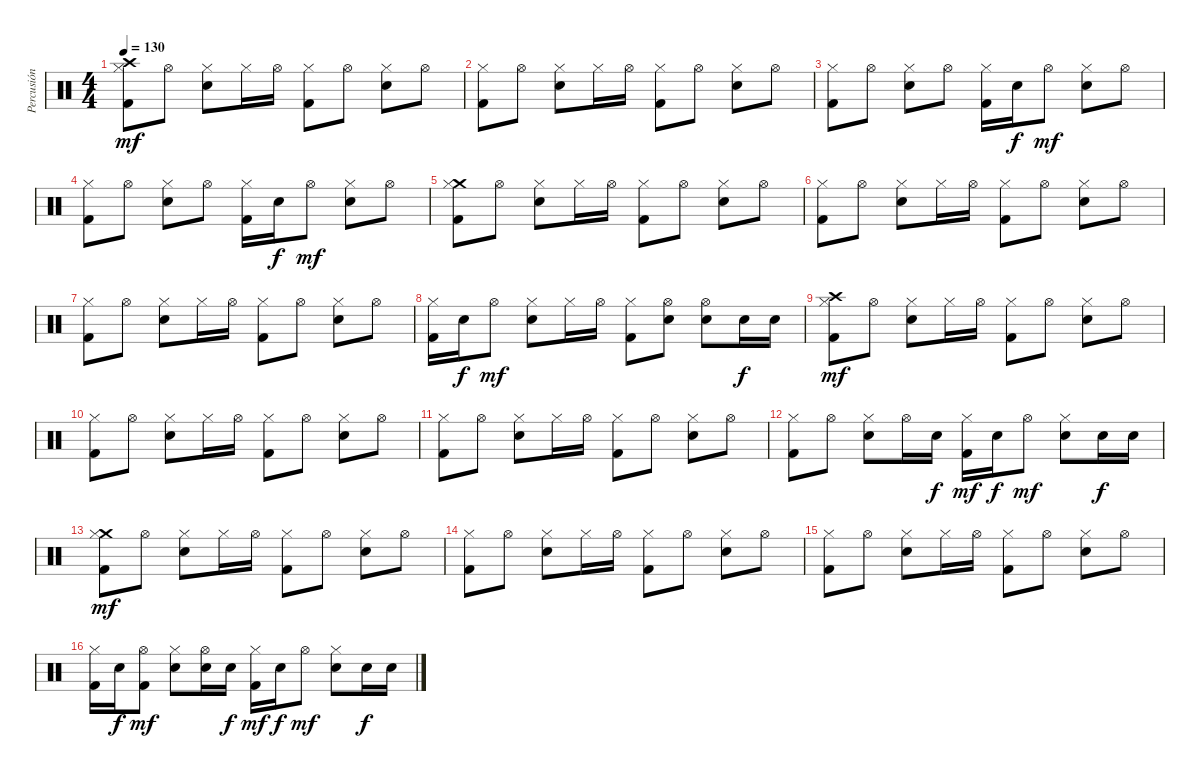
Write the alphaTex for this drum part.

\track ("Percusión" "Percusión") {instrument percussion}
\staff {score}
\articulation defaults
\ts (4 4)
\tempo 130
\clef neutral
\ks c
("Crash high (hit)" "Hi-Hat (closed)" "Kick (hit) 2").8{dy mf} "Hi-Hat (open)".8 ("Hi-Hat (closed)" "Snare (hit) 2").8 "Hi-Hat (closed)".16 "Hi-Hat (open)".16 ("Hi-Hat (closed)" "Kick (hit) 2").8 "Hi-Hat (open)".8 ("Hi-Hat (closed)" "Snare (hit) 2").8 "Hi-Hat (open)".8 |
("Hi-Hat (closed)" "Kick (hit) 2").8 "Hi-Hat (open)".8 ("Hi-Hat (closed)" "Snare (hit) 2").8 "Hi-Hat (closed)".16 "Hi-Hat (open)".16 ("Hi-Hat (closed)" "Kick (hit) 2").8 "Hi-Hat (open)".8 ("Hi-Hat (closed)" "Snare (hit) 2").8 "Hi-Hat (open)".8 |
("Hi-Hat (closed)" "Kick (hit) 2").8 "Hi-Hat (open)".8 ("Hi-Hat (closed)" "Snare (hit) 2").8 "Hi-Hat (open)".8 ("Hi-Hat (closed)" "Kick (hit) 2").16 "Snare (hit) 2".16{dy f} "Hi-Hat (open)".8{dy mf} ("Hi-Hat (closed)" "Snare (hit) 2").8 "Hi-Hat (open)".8 |
("Hi-Hat (closed)" "Kick (hit) 2").8 "Hi-Hat (open)".8 ("Hi-Hat (closed)" "Snare (hit) 2").8 "Hi-Hat (open)".8 ("Hi-Hat (closed)" "Kick (hit) 2").16 "Snare (hit) 2".16{dy f} "Hi-Hat (open)".8{dy mf} ("Hi-Hat (closed)" "Snare (hit) 2").8 "Hi-Hat (open)".8 |
("Crash medium (hit)" "Hi-Hat (closed)" "Kick (hit) 2").8 "Hi-Hat (open)".8 ("Hi-Hat (closed)" "Snare (hit) 2").8 "Hi-Hat (closed)".16 "Hi-Hat (open)".16 ("Hi-Hat (closed)" "Kick (hit) 2").8 "Hi-Hat (open)".8 ("Hi-Hat (closed)" "Snare (hit) 2").8 "Hi-Hat (open)".8 |
("Hi-Hat (closed)" "Kick (hit) 2").8 "Hi-Hat (open)".8 ("Hi-Hat (closed)" "Snare (hit) 2").8 "Hi-Hat (closed)".16 "Hi-Hat (open)".16 ("Hi-Hat (closed)" "Kick (hit) 2").8 "Hi-Hat (open)".8 ("Hi-Hat (closed)" "Snare (hit) 2").8 "Hi-Hat (open)".8 |
("Hi-Hat (closed)" "Kick (hit) 2").8 "Hi-Hat (open)".8 ("Hi-Hat (closed)" "Snare (hit) 2").8 "Hi-Hat (closed)".16 "Hi-Hat (open)".16 ("Hi-Hat (closed)" "Kick (hit) 2").8 "Hi-Hat (open)".8 ("Hi-Hat (closed)" "Snare (hit) 2").8 "Hi-Hat (open)".8 |
("Hi-Hat (closed)" "Kick (hit) 2").16 "Snare (hit) 2".16{dy f} "Hi-Hat (open)".8{dy mf} ("Hi-Hat (closed)" "Snare (hit) 2").8 "Hi-Hat (closed)".16 "Hi-Hat (open)".16 ("Hi-Hat (closed)" "Kick (hit) 2").8 ("Hi-Hat (open)" "Snare (hit) 2").8 ("Hi-Hat (open)" "Snare (hit) 2").8 "Snare (hit) 2".16{dy f} "Snare (hit) 2".16 |
("Crash high (hit)" "Hi-Hat (closed)" "Kick (hit) 2").8{dy mf} "Hi-Hat (open)".8 ("Hi-Hat (closed)" "Snare (hit) 2").8 "Hi-Hat (closed)".16 "Hi-Hat (open)".16 ("Hi-Hat (closed)" "Kick (hit) 2").8 "Hi-Hat (open)".8 ("Hi-Hat (closed)" "Snare (hit) 2").8 "Hi-Hat (open)".8 |
("Hi-Hat (closed)" "Kick (hit) 2").8 "Hi-Hat (open)".8 ("Hi-Hat (closed)" "Snare (hit) 2").8 "Hi-Hat (closed)".16 "Hi-Hat (open)".16 ("Hi-Hat (closed)" "Kick (hit) 2").8 "Hi-Hat (open)".8 ("Hi-Hat (closed)" "Snare (hit) 2").8 "Hi-Hat (open)".8 |
("Hi-Hat (closed)" "Kick (hit) 2").8 "Hi-Hat (open)".8 ("Hi-Hat (closed)" "Snare (hit) 2").8 "Hi-Hat (closed)".16 "Hi-Hat (open)".16 ("Hi-Hat (closed)" "Kick (hit) 2").8 "Hi-Hat (open)".8 ("Hi-Hat (closed)" "Snare (hit) 2").8 "Hi-Hat (open)".8 |
("Hi-Hat (closed)" "Kick (hit) 2").8 "Hi-Hat (open)".8 ("Hi-Hat (closed)" "Snare (hit) 2").8 "Hi-Hat (open)".16 "Snare (hit) 2".16{dy f} ("Hi-Hat (closed)" "Kick (hit) 2").16{dy mf} "Snare (hit) 2".16{dy f} "Hi-Hat (open)".8{dy mf} ("Hi-Hat (closed)" "Snare (hit) 2").8 "Snare (hit) 2".16{dy f} "Snare (hit) 2".16 |
("Crash medium (hit)" "Hi-Hat (closed)" "Kick (hit) 2").8{dy mf} "Hi-Hat (open)".8 ("Hi-Hat (closed)" "Snare (hit) 2").8 "Hi-Hat (closed)".16 "Hi-Hat (open)".16 ("Hi-Hat (closed)" "Kick (hit) 2").8 "Hi-Hat (open)".8 ("Hi-Hat (closed)" "Snare (hit) 2").8 "Hi-Hat (open)".8 |
("Hi-Hat (closed)" "Kick (hit) 2").8 "Hi-Hat (open)".8 ("Hi-Hat (closed)" "Snare (hit) 2").8 "Hi-Hat (closed)".16 "Hi-Hat (open)".16 ("Hi-Hat (closed)" "Kick (hit) 2").8 "Hi-Hat (open)".8 ("Hi-Hat (closed)" "Snare (hit) 2").8 "Hi-Hat (open)".8 |
("Hi-Hat (closed)" "Kick (hit) 2").8 "Hi-Hat (open)".8 ("Hi-Hat (closed)" "Snare (hit) 2").8 "Hi-Hat (closed)".16 "Hi-Hat (open)".16 ("Hi-Hat (closed)" "Kick (hit) 2").8 "Hi-Hat (open)".8 ("Hi-Hat (closed)" "Snare (hit) 2").8 "Hi-Hat (open)".8 |
("Hi-Hat (closed)" "Kick (hit) 2").16 "Snare (hit) 2".16{dy f} ("Hi-Hat (open)" "Kick (hit) 2").8{dy mf} ("Hi-Hat (closed)" "Snare (hit) 2").8 ("Hi-Hat (open)" "Snare (hit) 2").16 "Snare (hit) 2".16{dy f} ("Hi-Hat (closed)" "Kick (hit) 2").16{dy mf} "Snare (hit) 2".16{dy f} "Hi-Hat (open)".8{dy mf} ("Hi-Hat (closed)" "Snare (hit) 2").8 "Snare (hit) 2".16{dy f} "Snare (hit) 2".16
